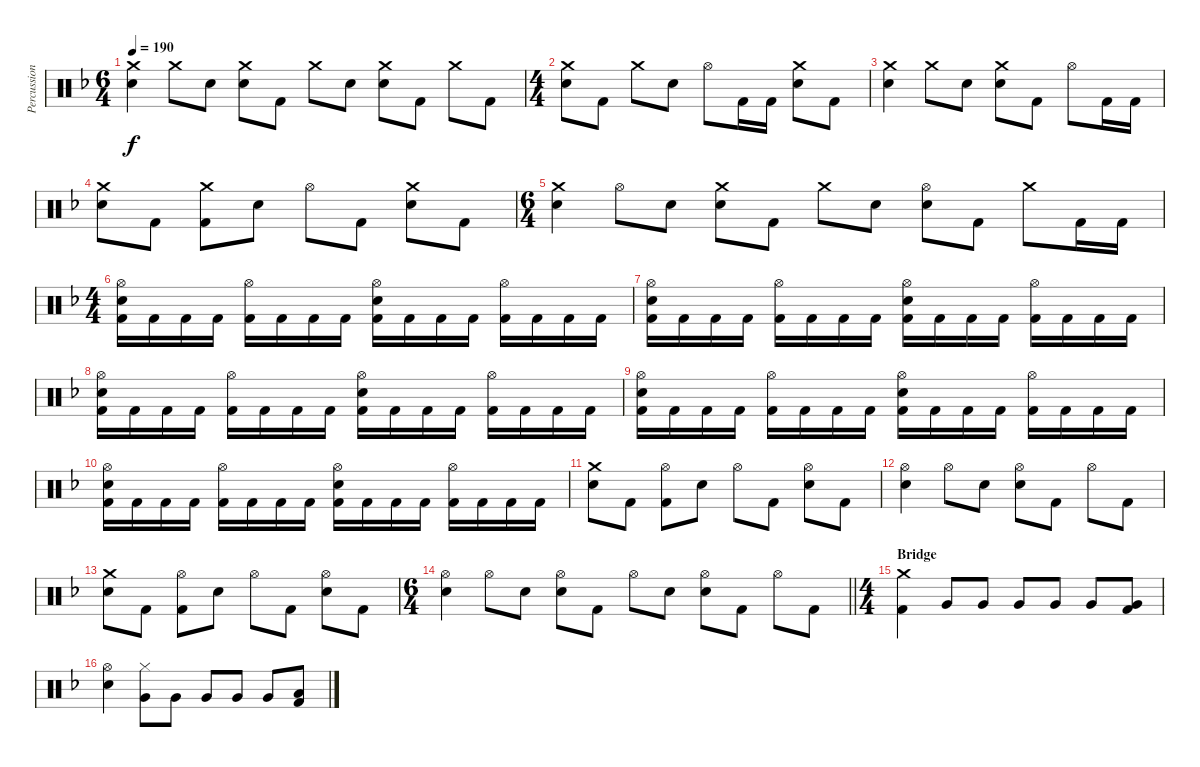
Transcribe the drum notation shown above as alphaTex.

\track ("Percussion" "Percussion") {instrument percussion}
\staff {score}
\articulation defaults
\ts (6 4)
\tempo 190
\clef neutral
\ks f
("Crash medium (hit)" "Electric Snare (hit)").4{dy f} "Crash medium (hit)".8 "Electric Snare (hit)".8 ("Crash medium (hit)" "Electric Snare (hit)").8 "Kick (hit) 2".8 "Crash medium (hit)".8 "Electric Snare (hit)".8 ("Crash medium (hit)" "Electric Snare (hit)").8 "Kick (hit) 2".8 "Crash medium (hit)".8 "Kick (hit) 2".8 |
\ts (4 4)
("Crash medium (hit)" "Electric Snare (hit)").8 "Kick (hit) 2".8 "Crash medium (hit)".8 "Electric Snare (hit)".8 "Hi-Hat (open)".8 "Kick (hit) 2".16 "Kick (hit) 2".16 ("Crash medium (hit)" "Electric Snare (hit)").8 "Kick (hit) 2".8 |
("Crash medium (hit)" "Electric Snare (hit)").4 "Crash medium (hit)".8 "Electric Snare (hit)".8 ("Crash medium (hit)" "Electric Snare (hit)").8 "Kick (hit) 2".8 "Hi-Hat (open)".8 "Kick (hit) 2".16 "Kick (hit) 2".16 |
("Crash medium (hit)" "Electric Snare (hit)").8 "Kick (hit) 2".8 ("Crash medium (hit)" "Kick (hit) 2").8 "Electric Snare (hit)".8 "Hi-Hat (open)".8 "Kick (hit) 2".8 ("Crash medium (hit)" "Electric Snare (hit)").8 "Kick (hit) 2".8 |
\ts (6 4)
("Crash medium (hit)" "Electric Snare (hit)").4 "Hi-Hat (open)".8 "Electric Snare (hit)".8 ("Crash medium (hit)" "Electric Snare (hit)").8 "Kick (hit) 2".8 "Crash medium (hit)".8 "Electric Snare (hit)".8 ("Hi-Hat (open)" "Electric Snare (hit)").8 "Kick (hit) 2".8 "Crash medium (hit)".8 "Kick (hit) 2".16 "Kick (hit) 2".16 |
\ts (4 4)
("Hi-Hat (open)" "Electric Snare (hit)" "Kick (hit) 2").16 "Kick (hit) 2".16 "Kick (hit) 2".16 "Kick (hit) 2".16 ("Hi-Hat (open)" "Kick (hit) 2").16 "Kick (hit) 2".16 "Kick (hit) 2".16 "Kick (hit) 2".16 ("Hi-Hat (open)" "Electric Snare (hit)" "Kick (hit) 2").16 "Kick (hit) 2".16 "Kick (hit) 2".16 "Kick (hit) 2".16 ("Hi-Hat (open)" "Kick (hit) 2").16 "Kick (hit) 2".16 "Kick (hit) 2".16 "Kick (hit) 2".16 |
("Hi-Hat (open)" "Electric Snare (hit)" "Kick (hit) 2").16 "Kick (hit) 2".16 "Kick (hit) 2".16 "Kick (hit) 2".16 ("Hi-Hat (open)" "Kick (hit) 2").16 "Kick (hit) 2".16 "Kick (hit) 2".16 "Kick (hit) 2".16 ("Hi-Hat (open)" "Electric Snare (hit)" "Kick (hit) 2").16 "Kick (hit) 2".16 "Kick (hit) 2".16 "Kick (hit) 2".16 ("Hi-Hat (open)" "Kick (hit) 2").16 "Kick (hit) 2".16 "Kick (hit) 2".16 "Kick (hit) 2".16 |
("Hi-Hat (open)" "Electric Snare (hit)" "Kick (hit) 2").16 "Kick (hit) 2".16 "Kick (hit) 2".16 "Kick (hit) 2".16 ("Hi-Hat (open)" "Kick (hit) 2").16 "Kick (hit) 2".16 "Kick (hit) 2".16 "Kick (hit) 2".16 ("Hi-Hat (open)" "Electric Snare (hit)" "Kick (hit) 2").16 "Kick (hit) 2".16 "Kick (hit) 2".16 "Kick (hit) 2".16 ("Hi-Hat (open)" "Kick (hit) 2").16 "Kick (hit) 2".16 "Kick (hit) 2".16 "Kick (hit) 2".16 |
("Hi-Hat (open)" "Electric Snare (hit)" "Kick (hit) 2").16 "Kick (hit) 2".16 "Kick (hit) 2".16 "Kick (hit) 2".16 ("Hi-Hat (open)" "Kick (hit) 2").16 "Kick (hit) 2".16 "Kick (hit) 2".16 "Kick (hit) 2".16 ("Hi-Hat (open)" "Electric Snare (hit)" "Kick (hit) 2").16 "Kick (hit) 2".16 "Kick (hit) 2".16 "Kick (hit) 2".16 ("Hi-Hat (open)" "Kick (hit) 2").16 "Kick (hit) 2".16 "Kick (hit) 2".16 "Kick (hit) 2".16 |
("Hi-Hat (open)" "Electric Snare (hit)" "Kick (hit) 2").16 "Kick (hit) 2".16 "Kick (hit) 2".16 "Kick (hit) 2".16 ("Hi-Hat (open)" "Kick (hit) 2").16 "Kick (hit) 2".16 "Kick (hit) 2".16 "Kick (hit) 2".16 ("Hi-Hat (open)" "Electric Snare (hit)" "Kick (hit) 2").16 "Kick (hit) 2".16 "Kick (hit) 2".16 "Kick (hit) 2".16 ("Hi-Hat (open)" "Kick (hit) 2").16 "Kick (hit) 2".16 "Kick (hit) 2".16 "Kick (hit) 2".16 |
("Crash medium (hit)" "Electric Snare (hit)").8 "Kick (hit) 2".8 ("Hi-Hat (open)" "Kick (hit) 2").8 "Electric Snare (hit)".8 "Hi-Hat (open)".8 "Kick (hit) 2".8 ("Hi-Hat (open)" "Electric Snare (hit)").8 "Kick (hit) 2".8 |
("Hi-Hat (open)" "Electric Snare (hit)").4 "Hi-Hat (open)".8 "Electric Snare (hit)".8 ("Hi-Hat (open)" "Electric Snare (hit)").8 "Kick (hit) 2".8 "Hi-Hat (open)".8 "Kick (hit) 2".8 |
("Crash medium (hit)" "Electric Snare (hit)").8 "Kick (hit) 2".8 ("Hi-Hat (open)" "Kick (hit) 2").8 "Electric Snare (hit)".8 "Hi-Hat (open)".8 "Kick (hit) 2".8 ("Hi-Hat (open)" "Electric Snare (hit)").8 "Kick (hit) 2".8 |
\ts (6 4)
\barLineRight lightlight
("Hi-Hat (open)" "Electric Snare (hit)").4 "Hi-Hat (open)".8 "Electric Snare (hit)".8 ("Hi-Hat (open)" "Electric Snare (hit)").8 "Kick (hit) 2".8 "Hi-Hat (open)".8 "Electric Snare (hit)".8 ("Hi-Hat (open)" "Electric Snare (hit)").8 "Kick (hit) 2".8 "Hi-Hat (open)".8 "Kick (hit) 2".8 |
\ts (4 4)
\section ("" "Bridge")
("Crash medium (hit)" "Kick (hit) 2").4 "Very Low Tom (hit)".8 "Very Low Tom (hit)".8 "Very Low Tom (hit)".8 "Very Low Tom (hit)".8 "Very Low Tom (hit)".8 ("Very Low Tom (hit)" "Kick (hit) 2").8 |
("Hi-Hat (open)" "Electric Snare (hit)").4 ("Hi-Hat (closed)" "Very Low Tom (hit)").8 "Very Low Tom (hit)".8 "Very Low Tom (hit)".8 "Very Low Tom (hit)".8 "Very Low Tom (hit)".8 ("Low Floor Tom (hit)" "Kick (hit) 2").8
